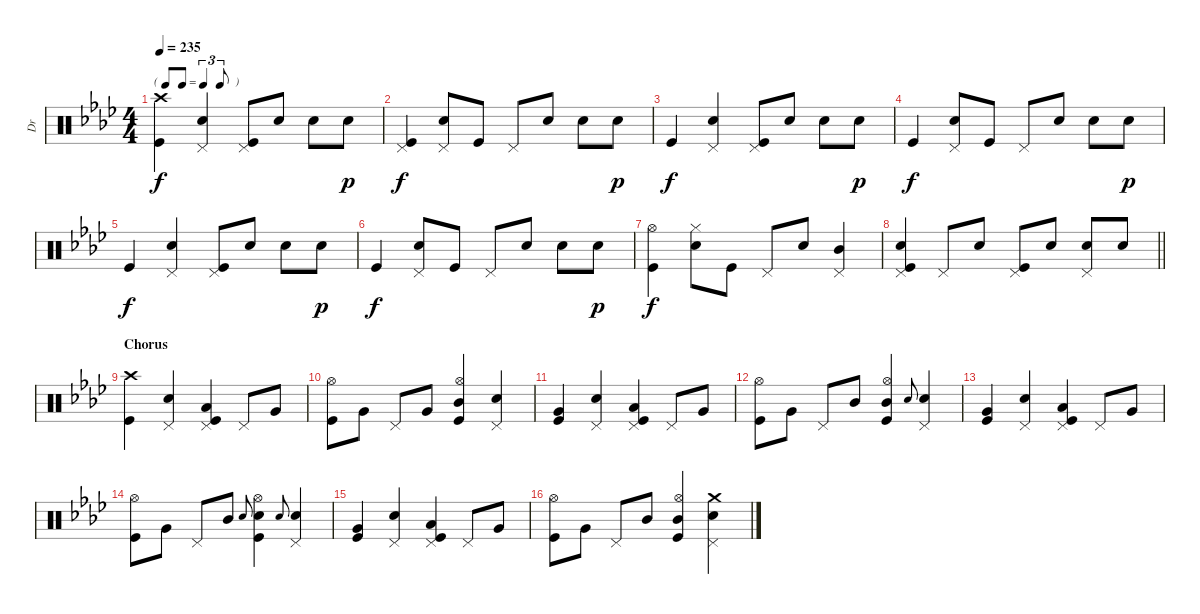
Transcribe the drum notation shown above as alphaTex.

\track ("Dr" "Dr") {instrument percussion}
\staff {score}
\articulation defaults
\ts (4 4)
\tf triplet8th
\tempo 235
\clef neutral
\ks ab
("Crash high (hit)" "Kick (hit)").4{dy f} ("Electric Snare (hit)" "Pedal Hi-Hat (hit)").4 ("Kick (hit)" "Pedal Hi-Hat (hit)").8 "Electric Snare (hit)".8 "Electric Snare (hit)".8 "Electric Snare (hit)".8{dy p} |
("Kick (hit)" "Pedal Hi-Hat (hit)").4{dy f} ("Electric Snare (hit)" "Pedal Hi-Hat (hit)").8 "Kick (hit)".8 "Pedal Hi-Hat (hit)".8 "Electric Snare (hit)".8 "Electric Snare (hit)".8 "Electric Snare (hit)".8{dy p} |
"Kick (hit)".4{dy f} ("Electric Snare (hit)" "Pedal Hi-Hat (hit)").4 ("Kick (hit)" "Pedal Hi-Hat (hit)").8 "Electric Snare (hit)".8 "Electric Snare (hit)".8 "Electric Snare (hit)".8{dy p} |
"Kick (hit)".4{dy f} ("Electric Snare (hit)" "Pedal Hi-Hat (hit)").8 "Kick (hit)".8 "Pedal Hi-Hat (hit)".8 "Electric Snare (hit)".8 "Electric Snare (hit)".8 "Electric Snare (hit)".8{dy p} |
"Kick (hit)".4{dy f} ("Electric Snare (hit)" "Pedal Hi-Hat (hit)").4 ("Kick (hit)" "Pedal Hi-Hat (hit)").8 "Electric Snare (hit)".8 "Electric Snare (hit)".8 "Electric Snare (hit)".8{dy p} |
"Kick (hit)".4{dy f} ("Electric Snare (hit)" "Pedal Hi-Hat (hit)").8 "Kick (hit)".8 "Pedal Hi-Hat (hit)".8 "Electric Snare (hit)".8 "Electric Snare (hit)".8 "Electric Snare (hit)".8{dy p} |
("Kick (hit)" "Hi-Hat (open)").4{dy f} ("Electric Snare (hit)" "Hi-Hat (closed)").8 "Kick (hit)".8 "Pedal Hi-Hat (hit)".8 "Electric Snare (hit)".8 ("Mid Tom (hit)" "Pedal Hi-Hat (hit)").4 |
\barLineRight lightlight
("Electric Snare (hit)" "Kick (hit)" "Pedal Hi-Hat (hit)").4 "Pedal Hi-Hat (hit)".8 "Electric Snare (hit)".8 ("Kick (hit)" "Pedal Hi-Hat (hit)").8 "Electric Snare (hit)".8 ("Electric Snare (hit)" "Pedal Hi-Hat (hit)").8 "Electric Snare (hit)".8 |
\section ("" "Chorus")
("Crash high (hit)" "Kick (hit)").4 ("Electric Snare (hit)" "Pedal Hi-Hat (hit)").4 ("Low Floor Tom (hit)" "Kick (hit)" "Pedal Hi-Hat (hit)").4 "Pedal Hi-Hat (hit)".8 "Very Low Tom (hit)".8 |
("Kick (hit)" "Hi-Hat (open)").8 "Very Low Tom (hit)".8 "Pedal Hi-Hat (hit)".8 "Very Low Tom (hit)".8 ("Mid Tom (hit)" "Kick (hit)" "Hi-Hat (open)").4 ("Electric Snare (hit)" "Pedal Hi-Hat (hit)").4 |
("Very Low Tom (hit)" "Kick (hit)").4 ("Electric Snare (hit)" "Pedal Hi-Hat (hit)").4 ("Low Floor Tom (hit)" "Kick (hit)" "Pedal Hi-Hat (hit)").4 "Pedal Hi-Hat (hit)".8 "Very Low Tom (hit)".8 |
("Kick (hit)" "Hi-Hat (open)").8 "Very Low Tom (hit)".8 "Pedal Hi-Hat (hit)".8 "Mid Tom (hit)".8 ("Mid Tom (hit)" "Kick (hit)" "Hi-Hat (open)").4 "Electric Snare (hit)".8{gr onbeat} ("Electric Snare (hit)" "Pedal Hi-Hat (hit)").4 |
("Very Low Tom (hit)" "Kick (hit)").4 ("Electric Snare (hit)" "Pedal Hi-Hat (hit)").4 ("Low Floor Tom (hit)" "Kick (hit)" "Pedal Hi-Hat (hit)").4 "Pedal Hi-Hat (hit)".8 "Very Low Tom (hit)".8 |
("Kick (hit)" "Hi-Hat (open)").8 "Very Low Tom (hit)".8 "Pedal Hi-Hat (hit)".8 "Mid Tom (hit)".8 "Electric Snare (hit)".8{gr onbeat} ("Electric Snare (hit)" "Kick (hit)" "Hi-Hat (open)").4 "Electric Snare (hit)".8{gr onbeat} ("Electric Snare (hit)" "Pedal Hi-Hat (hit)").4 |
("Very Low Tom (hit)" "Kick (hit)").4 ("Electric Snare (hit)" "Pedal Hi-Hat (hit)").4 ("Low Floor Tom (hit)" "Kick (hit)" "Pedal Hi-Hat (hit)").4 "Pedal Hi-Hat (hit)".8 "Very Low Tom (hit)".8 |
("Kick (hit)" "Hi-Hat (open)").8 "Very Low Tom (hit)".8 "Pedal Hi-Hat (hit)".8 "Mid Tom (hit)".8 ("Mid Tom (hit)" "Kick (hit)" "Hi-Hat (open)").4 ("Crash medium (hit)" "Electric Snare (hit)" "Pedal Hi-Hat (hit)").4
